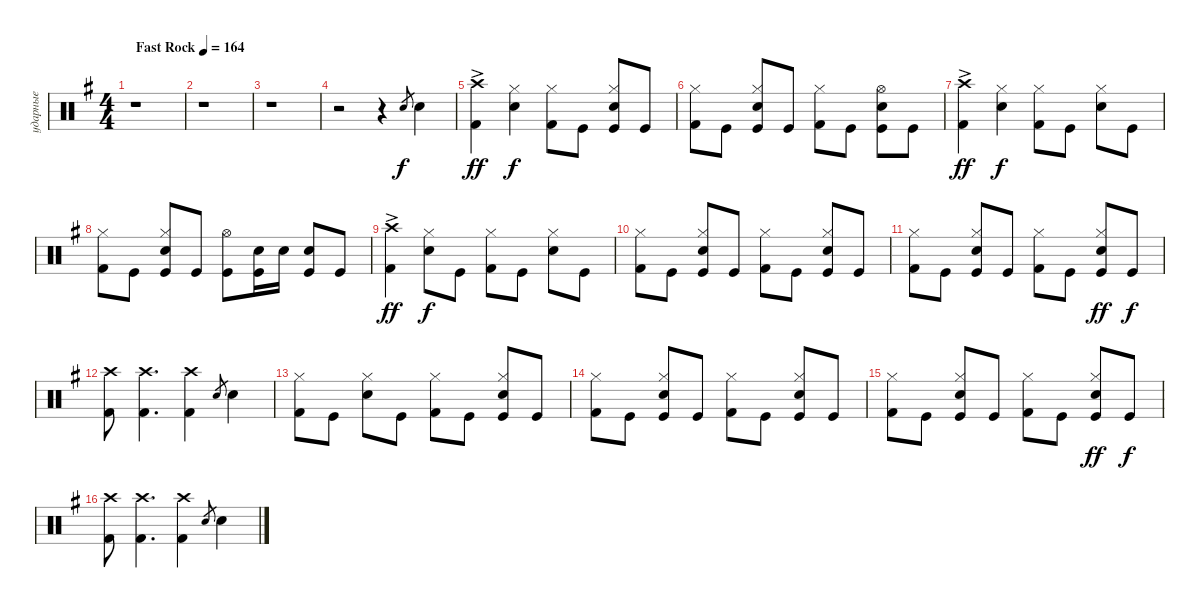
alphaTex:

\track ("ударные" "ударные") {instrument percussion}
\staff {score}
\articulation defaults
\ts (4 4)
\tempo (164 "Fast Rock")
\clef neutral
\ks eminor
r.1{dy f} |
r.1 |
r.1 |
r.2 r.4 "Snare (hit) 2".8{gr} "Snare (hit) 2".4 |
("Crash high (hit)"{ac} "Kick (hit) 2").4{dy ff} ("Hi-Hat (closed)" "Snare (hit) 2").4{dy f} ("Hi-Hat (closed)" "Kick (hit) 2").8 "Kick (hit)".8 ("Hi-Hat (closed)" "Kick (hit)" "Snare (hit) 2").8 "Kick (hit)".8 |
("Hi-Hat (closed)" "Kick (hit) 2").8 "Kick (hit)".8 ("Hi-Hat (closed)" "Kick (hit)" "Snare (hit) 2").8 "Kick (hit)".8 ("Hi-Hat (closed)" "Kick (hit) 2").8 "Kick (hit)".8 ("Snare (hit) 2" "Kick (hit)" "Hi-Hat (open)").8 "Kick (hit)".8 |
("Crash high (hit)"{ac} "Kick (hit) 2").4{dy ff} ("Hi-Hat (closed)" "Snare (hit) 2").4{dy f} ("Hi-Hat (closed)" "Kick (hit) 2").8 "Kick (hit)".8 ("Snare (hit) 2" "Hi-Hat (closed)").8 "Kick (hit)".8 |
("Hi-Hat (closed)" "Kick (hit) 2").8 "Kick (hit)".8 ("Hi-Hat (closed)" "Kick (hit)" "Snare (hit) 2").8 "Kick (hit)".8 ("Kick (hit)" "Hi-Hat (open)").8 ("Kick (hit)" "Snare (hit) 2").16 "Snare (hit) 2".16 ("Kick (hit)" "Snare (hit) 2").8 "Kick (hit)".8 |
("Crash high (hit)"{ac} "Kick (hit) 2").4{dy ff} ("Hi-Hat (closed)" "Snare (hit) 2").8{dy f} "Kick (hit)".8 ("Hi-Hat (closed)" "Kick (hit) 2").8 "Kick (hit)".8 ("Snare (hit) 2" "Hi-Hat (closed)").8 "Kick (hit)".8 |
("Hi-Hat (closed)" "Kick (hit) 2").8 "Kick (hit)".8 ("Hi-Hat (closed)" "Kick (hit)" "Snare (hit) 2").8 "Kick (hit)".8 ("Hi-Hat (closed)" "Kick (hit) 2").8 "Kick (hit)".8 ("Kick (hit)" "Snare (hit) 2" "Hi-Hat (closed)").8 "Kick (hit)".8 |
("Hi-Hat (closed)" "Kick (hit) 2").8 "Kick (hit)".8 ("Hi-Hat (closed)" "Kick (hit)" "Snare (hit) 2").8 "Kick (hit)".8 ("Hi-Hat (closed)" "Kick (hit) 2").8 "Kick (hit)".8 ("Snare (hit) 2" "Kick (hit)" "Hi-Hat (closed)").8{dy ff} "Kick (hit)".8{dy f} |
("Crash high (hit)" "Kick (hit) 2").8 ("Crash high (hit)" "Kick (hit) 2").4{d} ("Crash high (hit)" "Kick (hit) 2").4 "Snare (hit) 2".8{gr} "Snare (hit) 2".4 |
("Hi-Hat (closed)" "Kick (hit) 2").8 "Kick (hit)".8 ("Snare (hit) 2" "Hi-Hat (closed)").8 "Kick (hit)".8 ("Hi-Hat (closed)" "Kick (hit) 2").8 "Kick (hit)".8 ("Hi-Hat (closed)" "Kick (hit)" "Snare (hit) 2").8 "Kick (hit)".8 |
("Hi-Hat (closed)" "Kick (hit) 2").8 "Kick (hit)".8 ("Hi-Hat (closed)" "Kick (hit)" "Snare (hit) 2").8 "Kick (hit)".8 ("Hi-Hat (closed)" "Kick (hit) 2").8 "Kick (hit)".8 ("Kick (hit)" "Snare (hit) 2" "Hi-Hat (closed)").8 "Kick (hit)".8 |
("Hi-Hat (closed)" "Kick (hit) 2").8 "Kick (hit)".8 ("Hi-Hat (closed)" "Kick (hit)" "Snare (hit) 2").8 "Kick (hit)".8 ("Hi-Hat (closed)" "Kick (hit) 2").8 "Kick (hit)".8 ("Snare (hit) 2" "Kick (hit)" "Hi-Hat (closed)").8{dy ff} "Kick (hit)".8{dy f} |
("Crash high (hit)" "Kick (hit) 2").8 ("Crash high (hit)" "Kick (hit) 2").4{d} ("Crash high (hit)" "Kick (hit) 2").4 "Snare (hit) 2".8{gr} "Snare (hit) 2".4
